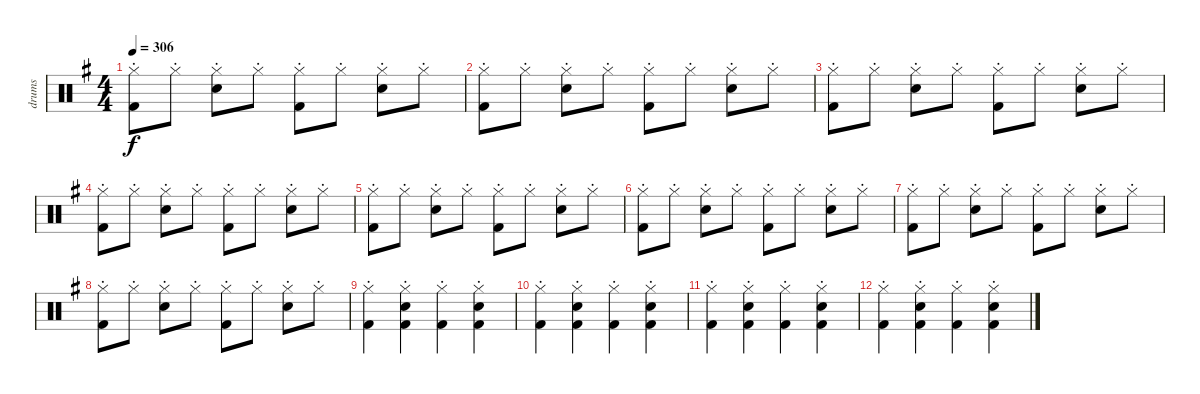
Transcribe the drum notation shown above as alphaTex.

\track ("drums" "drums") {instrument percussion}
\staff {score}
\articulation defaults
\ts (4 4)
\tempo 306
\clef neutral
\ks g
("Hi-Hat (closed)"{st} "Kick (hit) 2").8{dy f} "Hi-Hat (closed)"{st}.8 ("Hi-Hat (closed)"{st} "Electric Snare (hit)").8 "Hi-Hat (closed)"{st}.8 ("Hi-Hat (closed)"{st} "Kick (hit) 2").8 "Hi-Hat (closed)"{st}.8 ("Hi-Hat (closed)"{st} "Electric Snare (hit)").8 "Hi-Hat (closed)"{st}.8 |
("Hi-Hat (closed)"{st} "Kick (hit) 2").8 "Hi-Hat (closed)"{st}.8 ("Hi-Hat (closed)"{st} "Electric Snare (hit)").8 "Hi-Hat (closed)"{st}.8 ("Hi-Hat (closed)"{st} "Kick (hit) 2").8 "Hi-Hat (closed)"{st}.8 ("Hi-Hat (closed)"{st} "Electric Snare (hit)").8 "Hi-Hat (closed)"{st}.8 |
("Hi-Hat (closed)"{st} "Kick (hit) 2").8 "Hi-Hat (closed)"{st}.8 ("Hi-Hat (closed)"{st} "Electric Snare (hit)").8 "Hi-Hat (closed)"{st}.8 ("Hi-Hat (closed)"{st} "Kick (hit) 2").8 "Hi-Hat (closed)"{st}.8 ("Hi-Hat (closed)"{st} "Electric Snare (hit)").8 "Hi-Hat (closed)"{st}.8 |
("Hi-Hat (closed)"{st} "Kick (hit) 2").8 "Hi-Hat (closed)"{st}.8 ("Hi-Hat (closed)"{st} "Electric Snare (hit)").8 "Hi-Hat (closed)"{st}.8 ("Hi-Hat (closed)"{st} "Kick (hit) 2").8 "Hi-Hat (closed)"{st}.8 ("Hi-Hat (closed)"{st} "Electric Snare (hit)").8 "Hi-Hat (closed)"{st}.8 |
("Hi-Hat (closed)"{st} "Kick (hit) 2").8 "Hi-Hat (closed)"{st}.8 ("Hi-Hat (closed)"{st} "Electric Snare (hit)").8 "Hi-Hat (closed)"{st}.8 ("Hi-Hat (closed)"{st} "Kick (hit) 2").8 "Hi-Hat (closed)"{st}.8 ("Hi-Hat (closed)"{st} "Electric Snare (hit)").8 "Hi-Hat (closed)"{st}.8 |
("Hi-Hat (closed)"{st} "Kick (hit) 2").8 "Hi-Hat (closed)"{st}.8 ("Hi-Hat (closed)"{st} "Electric Snare (hit)").8 "Hi-Hat (closed)"{st}.8 ("Hi-Hat (closed)"{st} "Kick (hit) 2").8 "Hi-Hat (closed)"{st}.8 ("Hi-Hat (closed)"{st} "Electric Snare (hit)").8 "Hi-Hat (closed)"{st}.8 |
("Hi-Hat (closed)"{st} "Kick (hit) 2").8 "Hi-Hat (closed)"{st}.8 ("Hi-Hat (closed)"{st} "Electric Snare (hit)").8 "Hi-Hat (closed)"{st}.8 ("Hi-Hat (closed)"{st} "Kick (hit) 2").8 "Hi-Hat (closed)"{st}.8 ("Hi-Hat (closed)"{st} "Electric Snare (hit)").8 "Hi-Hat (closed)"{st}.8 |
("Hi-Hat (closed)"{st} "Kick (hit) 2").8 "Hi-Hat (closed)"{st}.8 ("Hi-Hat (closed)"{st} "Electric Snare (hit)").8 "Hi-Hat (closed)"{st}.8 ("Hi-Hat (closed)"{st} "Kick (hit) 2").8 "Hi-Hat (closed)"{st}.8 ("Hi-Hat (closed)"{st} "Electric Snare (hit)").8 "Hi-Hat (closed)"{st}.8 |
("Hi-Hat (closed)"{st} "Kick (hit) 2").4 ("Hi-Hat (closed)"{st} "Electric Snare (hit)" "Kick (hit) 2").4 ("Hi-Hat (closed)"{st} "Kick (hit) 2").4 ("Hi-Hat (closed)"{st} "Electric Snare (hit)" "Kick (hit) 2").4 |
("Hi-Hat (closed)"{st} "Kick (hit) 2").4 ("Hi-Hat (closed)"{st} "Electric Snare (hit)" "Kick (hit) 2").4 ("Hi-Hat (closed)"{st} "Kick (hit) 2").4 ("Hi-Hat (closed)"{st} "Electric Snare (hit)" "Kick (hit) 2").4 |
("Hi-Hat (closed)"{st} "Kick (hit) 2").4 ("Hi-Hat (closed)"{st} "Electric Snare (hit)" "Kick (hit) 2").4 ("Hi-Hat (closed)"{st} "Kick (hit) 2").4 ("Hi-Hat (closed)"{st} "Electric Snare (hit)" "Kick (hit) 2").4 |
("Hi-Hat (closed)"{st} "Kick (hit) 2").4 ("Hi-Hat (closed)"{st} "Electric Snare (hit)" "Kick (hit) 2").4 ("Hi-Hat (closed)"{st} "Kick (hit) 2").4 ("Hi-Hat (closed)"{st} "Electric Snare (hit)" "Kick (hit) 2").4
